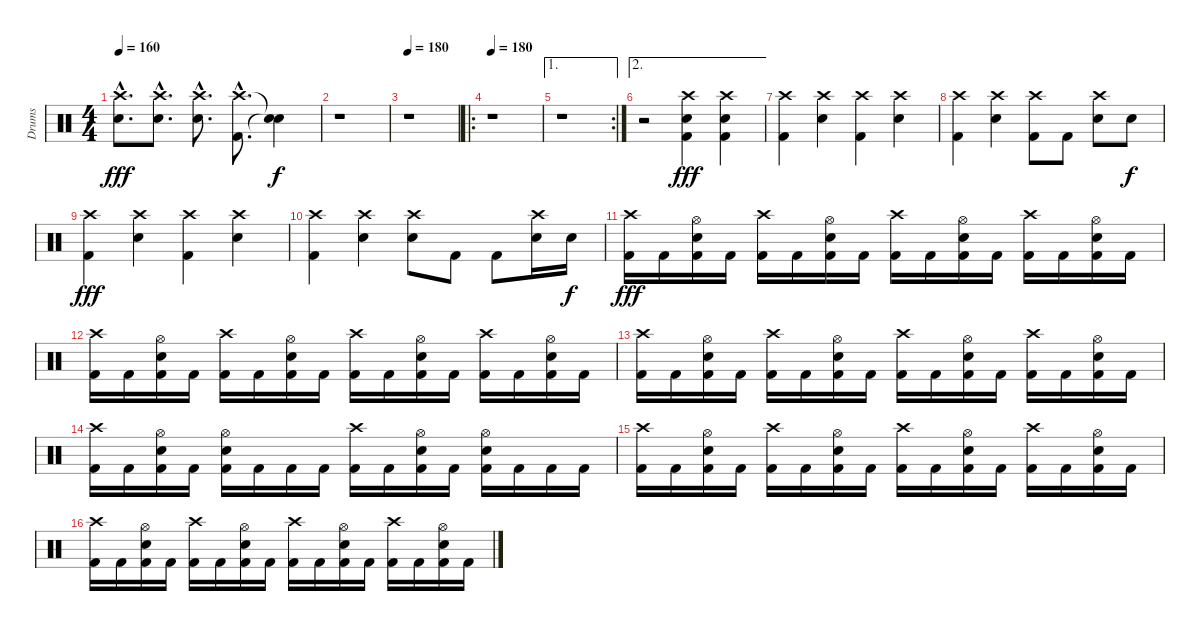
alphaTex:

\track ("Drums" "Drums") {instrument percussion}
\staff {score}
\articulation defaults
\ts (4 4)
\tempo 160
\clef neutral
\ks c
("Crash high (hit)"{hac} "Snare (hit) 2"{hac}).8{d dy fff} ("Crash high (hit)"{hac} "Snare (hit) 2"{hac}).8{d} ("Crash high (hit)"{hac} "Snare (hit) 2"{hac}).8{d} ("Crash high (hit)"{hac} "Kick (hit) 2"{hac}).8{d} ("Snare (hit)"{t} "Snare (hit)"{t}).4{dy f} |
r.1 |
\tempo 180
r.1 |
\ro
\tempo 180
r.1 |
\ae 1
\rc 2
r.1 |
\ae 2
r.2 ("Crash high (hit)" "Snare (hit) 2" "Kick (hit) 2").4{dy fff} ("Crash high (hit)" "Snare (hit) 2" "Kick (hit) 2").4 |
("Crash high (hit)" "Kick (hit) 2").4 ("Crash high (hit)" "Snare (hit) 2").4 ("Crash high (hit)" "Kick (hit) 2").4 ("Crash high (hit)" "Snare (hit) 2").4 |
("Crash high (hit)" "Kick (hit) 2").4 ("Crash high (hit)" "Snare (hit) 2").4 ("Crash high (hit)" "Kick (hit) 2").8 "Kick (hit) 2".8 ("Crash high (hit)" "Snare (hit) 2").8 "Snare (hit) 2".8{dy f} |
("Crash high (hit)" "Kick (hit) 2").4{dy fff} ("Crash high (hit)" "Snare (hit) 2").4 ("Crash high (hit)" "Kick (hit) 2").4 ("Crash high (hit)" "Snare (hit) 2").4 |
("Crash high (hit)" "Kick (hit) 2").4 ("Crash high (hit)" "Snare (hit) 2").4 ("Crash high (hit)" "Snare (hit) 2").8 "Kick (hit) 2".8 "Kick (hit) 2".8 ("Crash high (hit)" "Snare (hit) 2").16 "Snare (hit) 2".16{dy f} |
("Crash high (hit)" "Kick (hit) 2").16{dy fff} "Kick (hit) 2".16 ("Hi-Hat (open)" "Snare (hit) 2" "Kick (hit) 2").16 "Kick (hit) 2".16 ("Crash high (hit)" "Kick (hit) 2").16 "Kick (hit) 2".16 ("Hi-Hat (open)" "Snare (hit) 2" "Kick (hit) 2").16 "Kick (hit) 2".16 ("Crash high (hit)" "Kick (hit) 2").16 "Kick (hit) 2".16 ("Hi-Hat (open)" "Snare (hit) 2" "Kick (hit) 2").16 "Kick (hit) 2".16 ("Crash high (hit)" "Kick (hit) 2").16 "Kick (hit) 2".16 ("Hi-Hat (open)" "Snare (hit) 2" "Kick (hit) 2").16 "Kick (hit) 2".16 |
("Crash high (hit)" "Kick (hit) 2").16 "Kick (hit) 2".16 ("Hi-Hat (open)" "Snare (hit) 2" "Kick (hit) 2").16 "Kick (hit) 2".16 ("Crash high (hit)" "Kick (hit) 2").16 "Kick (hit) 2".16 ("Hi-Hat (open)" "Snare (hit) 2" "Kick (hit) 2").16 "Kick (hit) 2".16 ("Crash high (hit)" "Kick (hit) 2").16 "Kick (hit) 2".16 ("Hi-Hat (open)" "Snare (hit) 2" "Kick (hit) 2").16 "Kick (hit) 2".16 ("Crash high (hit)" "Kick (hit) 2").16 "Kick (hit) 2".16 ("Hi-Hat (open)" "Snare (hit) 2" "Kick (hit) 2").16 "Kick (hit) 2".16 |
("Crash high (hit)" "Kick (hit) 2").16 "Kick (hit) 2".16 ("Hi-Hat (open)" "Snare (hit) 2" "Kick (hit) 2").16 "Kick (hit) 2".16 ("Crash high (hit)" "Kick (hit) 2").16 "Kick (hit) 2".16 ("Hi-Hat (open)" "Snare (hit) 2" "Kick (hit) 2").16 "Kick (hit) 2".16 ("Crash high (hit)" "Kick (hit) 2").16 "Kick (hit) 2".16 ("Hi-Hat (open)" "Snare (hit) 2" "Kick (hit) 2").16 "Kick (hit) 2".16 ("Crash high (hit)" "Kick (hit) 2").16 "Kick (hit) 2".16 ("Hi-Hat (open)" "Snare (hit) 2" "Kick (hit) 2").16 "Kick (hit) 2".16 |
("Crash high (hit)" "Kick (hit) 2").16 "Kick (hit) 2".16 ("Hi-Hat (open)" "Snare (hit) 2" "Kick (hit) 2").16 "Kick (hit) 2".16 ("Hi-Hat (open)" "Snare (hit) 2" "Kick (hit) 2").16 "Kick (hit) 2".16 "Kick (hit) 2".16 "Kick (hit) 2".16 ("Crash high (hit)" "Kick (hit) 2").16 "Kick (hit) 2".16 ("Hi-Hat (open)" "Snare (hit) 2" "Kick (hit) 2").16 "Kick (hit) 2".16 ("Hi-Hat (open)" "Snare (hit) 2" "Kick (hit) 2").16 "Kick (hit) 2".16 "Kick (hit) 2".16 "Kick (hit) 2".16 |
("Crash high (hit)" "Kick (hit) 2").16 "Kick (hit) 2".16 ("Hi-Hat (open)" "Snare (hit) 2" "Kick (hit) 2").16 "Kick (hit) 2".16 ("Crash high (hit)" "Kick (hit) 2").16 "Kick (hit) 2".16 ("Hi-Hat (open)" "Snare (hit) 2" "Kick (hit) 2").16 "Kick (hit) 2".16 ("Crash high (hit)" "Kick (hit) 2").16 "Kick (hit) 2".16 ("Hi-Hat (open)" "Snare (hit) 2" "Kick (hit) 2").16 "Kick (hit) 2".16 ("Crash high (hit)" "Kick (hit) 2").16 "Kick (hit) 2".16 ("Hi-Hat (open)" "Snare (hit) 2" "Kick (hit) 2").16 "Kick (hit) 2".16 |
("Crash high (hit)" "Kick (hit) 2").16 "Kick (hit) 2".16 ("Hi-Hat (open)" "Snare (hit) 2" "Kick (hit) 2").16 "Kick (hit) 2".16 ("Crash high (hit)" "Kick (hit) 2").16 "Kick (hit) 2".16 ("Hi-Hat (open)" "Snare (hit) 2" "Kick (hit) 2").16 "Kick (hit) 2".16 ("Crash high (hit)" "Kick (hit) 2").16 "Kick (hit) 2".16 ("Hi-Hat (open)" "Snare (hit) 2" "Kick (hit) 2").16 "Kick (hit) 2".16 ("Crash high (hit)" "Kick (hit) 2").16 "Kick (hit) 2".16 ("Hi-Hat (open)" "Snare (hit) 2" "Kick (hit) 2").16 "Kick (hit) 2".16
